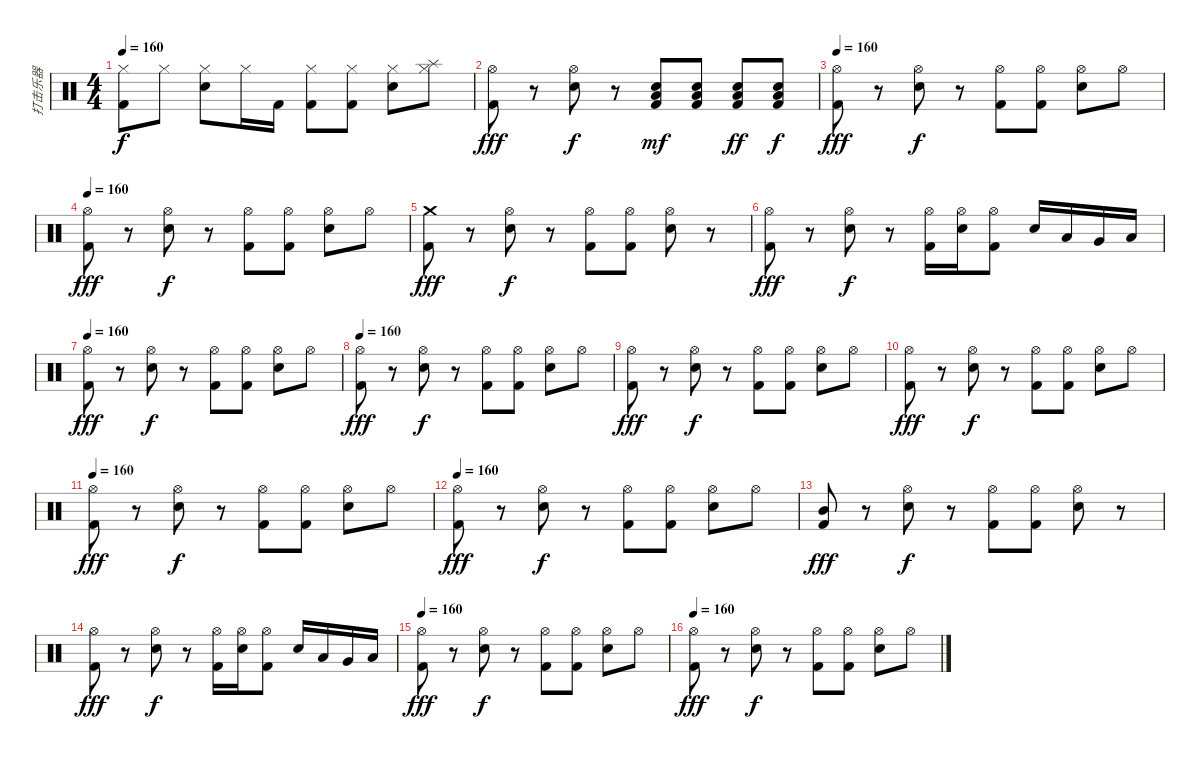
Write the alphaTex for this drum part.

\track ("打击乐器" "打击乐器") {instrument percussion}
\staff {score}
\articulation defaults
\ts (4 4)
\tempo 160
\clef neutral
\ks c
("Kick (hit) 2" "Hi-Hat (closed)").8{dy f} "Hi-Hat (closed)".8 ("Electric Snare (hit)" "Hi-Hat (closed)").8 "Hi-Hat (closed)".16 "Kick (hit) 2".16 ("Kick (hit) 2" "Hi-Hat (closed)").8 ("Kick (hit) 2" "Hi-Hat (closed)").8 ("Electric Snare (hit)" "Hi-Hat (closed)").8 ("Splash (hit)" "Hi-Hat (closed)").8 |
("Hi-Hat (open)" "Kick (hit) 2").8{dy fff} r.8 ("Hi-Hat (open)" "Electric Snare (hit)").8{dy f} r.8 ("Low Floor Tom (hit)" "Snare (hit) 2" "Kick (hit) 2").8{dy mf} ("Low Floor Tom (hit)" "Snare (hit) 2" "Kick (hit) 2").8 ("Low Floor Tom (hit)" "Snare (hit) 2" "Kick (hit) 2").8{dy ff} ("Low Floor Tom (hit)" "Snare (hit) 2" "Kick (hit) 2").8{dy f} |
\tempo 160
("Hi-Hat (open)" "Kick (hit) 2").8{dy fff} r.8 ("Hi-Hat (open)" "Electric Snare (hit)").8{dy f} r.8 ("Hi-Hat (open)" "Kick (hit) 2").8 ("Hi-Hat (open)" "Kick (hit) 2").8 ("Hi-Hat (open)" "Electric Snare (hit)").8 "Hi-Hat (open)".8 |
\tempo 160
("Hi-Hat (open)" "Kick (hit) 2").8{dy fff} r.8 ("Hi-Hat (open)" "Electric Snare (hit)").8{dy f} r.8 ("Hi-Hat (open)" "Kick (hit) 2").8 ("Hi-Hat (open)" "Kick (hit) 2").8 ("Hi-Hat (open)" "Electric Snare (hit)").8 "Hi-Hat (open)".8 |
("Crash medium (hit)" "Kick (hit) 2").8{dy fff} r.8 ("Hi-Hat (open)" "Electric Snare (hit)").8{dy f} r.8 ("Hi-Hat (open)" "Kick (hit) 2").8 ("Hi-Hat (open)" "Kick (hit) 2").8 ("Hi-Hat (open)" "Electric Snare (hit)").8 r.8 |
("Hi-Hat (open)" "Kick (hit) 2").8{dy fff} r.8 ("Hi-Hat (open)" "Electric Snare (hit)").8{dy f} r.8 ("Hi-Hat (open)" "Kick (hit) 2").16 ("Hi-Hat (open)" "Electric Snare (hit)").16 ("Hi-Hat (open)" "Kick (hit) 2").8 "Electric Snare (hit)".16 "Low Tom (hit)".16 "Very Low Tom (hit)".16 "Low Floor Tom (hit)".16 |
\tempo 160
("Hi-Hat (open)" "Kick (hit) 2").8{dy fff} r.8 ("Hi-Hat (open)" "Electric Snare (hit)").8{dy f} r.8 ("Hi-Hat (open)" "Kick (hit) 2").8 ("Hi-Hat (open)" "Kick (hit) 2").8 ("Hi-Hat (open)" "Electric Snare (hit)").8 "Hi-Hat (open)".8 |
\tempo 160
("Hi-Hat (open)" "Kick (hit) 2").8{dy fff} r.8 ("Hi-Hat (open)" "Electric Snare (hit)").8{dy f} r.8 ("Hi-Hat (open)" "Kick (hit) 2").8 ("Hi-Hat (open)" "Kick (hit) 2").8 ("Hi-Hat (open)" "Electric Snare (hit)").8 "Hi-Hat (open)".8 |
("Hi-Hat (open)" "Kick (hit) 2").8{dy fff} r.8 ("Hi-Hat (open)" "Electric Snare (hit)").8{dy f} r.8 ("Hi-Hat (open)" "Kick (hit) 2").8 ("Hi-Hat (open)" "Kick (hit) 2").8 ("Hi-Hat (open)" "Electric Snare (hit)").8 "Hi-Hat (open)".8 |
("Hi-Hat (open)" "Kick (hit) 2").8{dy fff} r.8 ("Hi-Hat (open)" "Electric Snare (hit)").8{dy f} r.8 ("Hi-Hat (open)" "Kick (hit) 2").8 ("Hi-Hat (open)" "Kick (hit) 2").8 ("Hi-Hat (open)" "Electric Snare (hit)").8 "Hi-Hat (open)".8 |
\tempo 160
("Hi-Hat (open)" "Kick (hit) 2").8{dy fff} r.8 ("Hi-Hat (open)" "Electric Snare (hit)").8{dy f} r.8 ("Hi-Hat (open)" "Kick (hit) 2").8 ("Hi-Hat (open)" "Kick (hit) 2").8 ("Hi-Hat (open)" "Electric Snare (hit)").8 "Hi-Hat (open)".8 |
\tempo 160
("Hi-Hat (open)" "Kick (hit) 2").8{dy fff} r.8 ("Hi-Hat (open)" "Electric Snare (hit)").8{dy f} r.8 ("Hi-Hat (open)" "Kick (hit) 2").8 ("Hi-Hat (open)" "Kick (hit) 2").8 ("Hi-Hat (open)" "Electric Snare (hit)").8 "Hi-Hat (open)".8 |
("Mid Tom (hit)" "Kick (hit) 2").8{dy fff} r.8 ("Hi-Hat (open)" "Electric Snare (hit)").8{dy f} r.8 ("Hi-Hat (open)" "Kick (hit) 2").8 ("Hi-Hat (open)" "Kick (hit) 2").8 ("Hi-Hat (open)" "Electric Snare (hit)").8 r.8 |
("Hi-Hat (open)" "Kick (hit) 2").8{dy fff} r.8 ("Hi-Hat (open)" "Electric Snare (hit)").8{dy f} r.8 ("Hi-Hat (open)" "Kick (hit) 2").16 ("Hi-Hat (open)" "Electric Snare (hit)").16 ("Hi-Hat (open)" "Kick (hit) 2").8 "Electric Snare (hit)".16 "Low Tom (hit)".16 "Very Low Tom (hit)".16 "Low Floor Tom (hit)".16 |
\tempo 160
("Hi-Hat (open)" "Kick (hit) 2").8{dy fff} r.8 ("Hi-Hat (open)" "Electric Snare (hit)").8{dy f} r.8 ("Hi-Hat (open)" "Kick (hit) 2").8 ("Hi-Hat (open)" "Kick (hit) 2").8 ("Hi-Hat (open)" "Electric Snare (hit)").8 "Hi-Hat (open)".8 |
\tempo 160
("Hi-Hat (open)" "Kick (hit) 2").8{dy fff} r.8 ("Hi-Hat (open)" "Electric Snare (hit)").8{dy f} r.8 ("Hi-Hat (open)" "Kick (hit) 2").8 ("Hi-Hat (open)" "Kick (hit) 2").8 ("Hi-Hat (open)" "Electric Snare (hit)").8 "Hi-Hat (open)".8
